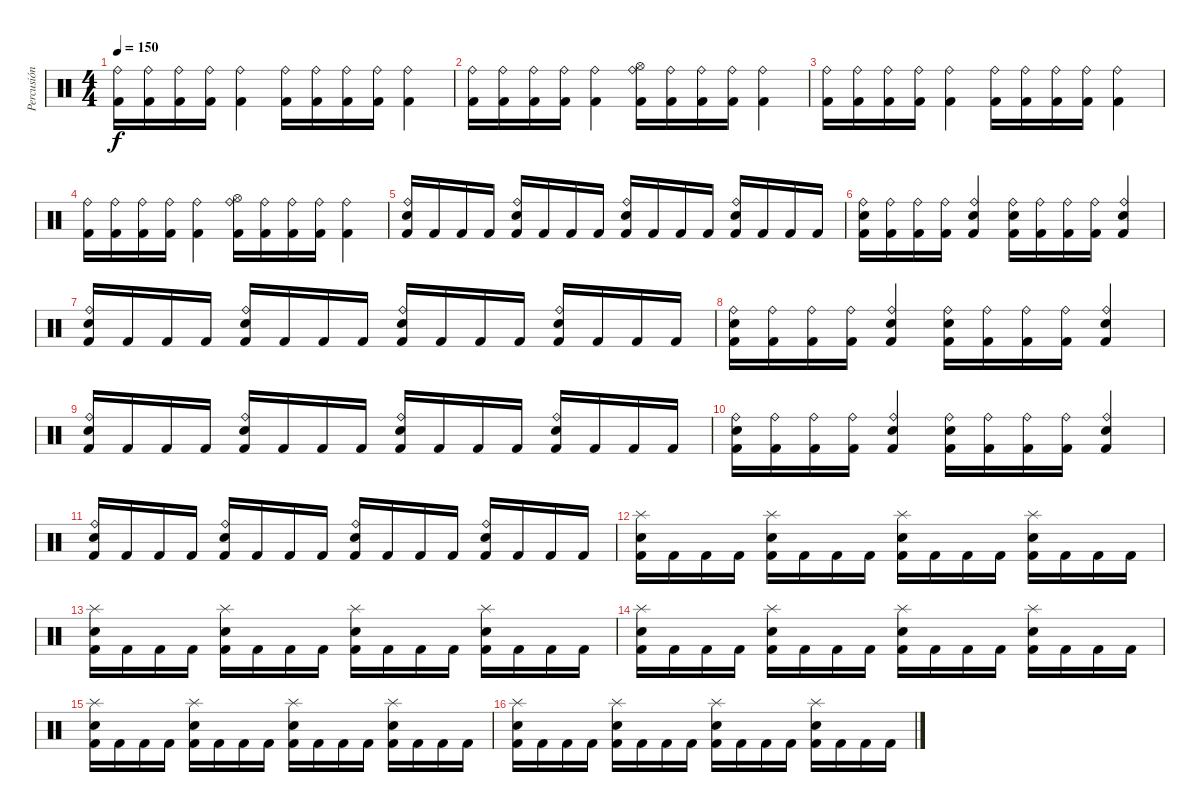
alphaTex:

\track ("Percusión" "Percusión") {instrument percussion}
\staff {score}
\articulation defaults
\ts (4 4)
\tempo 150
\clef neutral
\ks c
("Kick (hit) 2" "Ride (bell)").16{dy f} ("Kick (hit) 2" "Ride (bell)").16 ("Kick (hit) 2" "Ride (bell)").16 ("Kick (hit) 2" "Ride (bell)").16 ("Kick (hit) 2" "Ride (bell)").4 ("Kick (hit) 2" "Ride (bell)").16 ("Kick (hit) 2" "Ride (bell)").16 ("Kick (hit) 2" "Ride (bell)").16 ("Kick (hit) 2" "Ride (bell)").16 ("Kick (hit) 2" "Ride (bell)").4 |
("Kick (hit) 2" "Ride (bell)").16 ("Kick (hit) 2" "Ride (bell)").16 ("Kick (hit) 2" "Ride (bell)").16 ("Kick (hit) 2" "Ride (bell)").16 ("Kick (hit) 2" "Ride (bell)").4 ("Kick (hit) 2" "Ride (bell)" "Hi-Hat (open)").16 ("Kick (hit) 2" "Ride (bell)").16 ("Kick (hit) 2" "Ride (bell)").16 ("Kick (hit) 2" "Ride (bell)").16 ("Kick (hit) 2" "Ride (bell)").4 |
("Kick (hit) 2" "Ride (bell)").16 ("Kick (hit) 2" "Ride (bell)").16 ("Kick (hit) 2" "Ride (bell)").16 ("Kick (hit) 2" "Ride (bell)").16 ("Kick (hit) 2" "Ride (bell)").4 ("Kick (hit) 2" "Ride (bell)").16 ("Kick (hit) 2" "Ride (bell)").16 ("Kick (hit) 2" "Ride (bell)").16 ("Kick (hit) 2" "Ride (bell)").16 ("Kick (hit) 2" "Ride (bell)").4 |
("Kick (hit) 2" "Ride (bell)").16 ("Kick (hit) 2" "Ride (bell)").16 ("Kick (hit) 2" "Ride (bell)").16 ("Kick (hit) 2" "Ride (bell)").16 ("Kick (hit) 2" "Ride (bell)").4 ("Kick (hit) 2" "Ride (bell)" "Hi-Hat (open)").16 ("Kick (hit) 2" "Ride (bell)").16 ("Kick (hit) 2" "Ride (bell)").16 ("Kick (hit) 2" "Ride (bell)").16 ("Kick (hit) 2" "Ride (bell)").4 |
("Kick (hit) 2" "Ride (bell)" "Snare (hit) 2").16 "Kick (hit) 2".16 "Kick (hit) 2".16 "Kick (hit) 2".16 ("Kick (hit) 2" "Ride (bell)" "Snare (hit) 2").16 "Kick (hit) 2".16 "Kick (hit) 2".16 "Kick (hit) 2".16 ("Kick (hit) 2" "Ride (bell)" "Snare (hit) 2").16 "Kick (hit) 2".16 "Kick (hit) 2".16 "Kick (hit) 2".16 ("Kick (hit) 2" "Ride (bell)" "Snare (hit) 2").16 "Kick (hit) 2".16 "Kick (hit) 2".16 "Kick (hit) 2".16 |
("Kick (hit) 2" "Ride (bell)" "Snare (hit) 2").16 ("Kick (hit) 2" "Ride (bell)").16 ("Kick (hit) 2" "Ride (bell)").16 ("Kick (hit) 2" "Ride (bell)").16 ("Kick (hit) 2" "Ride (bell)" "Snare (hit) 2").4 ("Kick (hit) 2" "Ride (bell)" "Snare (hit) 2").16 ("Kick (hit) 2" "Ride (bell)").16 ("Kick (hit) 2" "Ride (bell)").16 ("Kick (hit) 2" "Ride (bell)").16 ("Kick (hit) 2" "Ride (bell)" "Snare (hit) 2").4 |
("Kick (hit) 2" "Ride (bell)" "Snare (hit) 2").16 "Kick (hit) 2".16 "Kick (hit) 2".16 "Kick (hit) 2".16 ("Kick (hit) 2" "Ride (bell)" "Snare (hit) 2").16 "Kick (hit) 2".16 "Kick (hit) 2".16 "Kick (hit) 2".16 ("Kick (hit) 2" "Ride (bell)" "Snare (hit) 2").16 "Kick (hit) 2".16 "Kick (hit) 2".16 "Kick (hit) 2".16 ("Kick (hit) 2" "Ride (bell)" "Snare (hit) 2").16 "Kick (hit) 2".16 "Kick (hit) 2".16 "Kick (hit) 2".16 |
("Kick (hit) 2" "Ride (bell)" "Snare (hit) 2").16 ("Kick (hit) 2" "Ride (bell)").16 ("Kick (hit) 2" "Ride (bell)").16 ("Kick (hit) 2" "Ride (bell)").16 ("Kick (hit) 2" "Ride (bell)" "Snare (hit) 2").4 ("Kick (hit) 2" "Ride (bell)" "Snare (hit) 2").16 ("Kick (hit) 2" "Ride (bell)").16 ("Kick (hit) 2" "Ride (bell)").16 ("Kick (hit) 2" "Ride (bell)").16 ("Kick (hit) 2" "Ride (bell)" "Snare (hit) 2").4 |
("Kick (hit) 2" "Ride (bell)" "Snare (hit) 2").16 "Kick (hit) 2".16 "Kick (hit) 2".16 "Kick (hit) 2".16 ("Kick (hit) 2" "Ride (bell)" "Snare (hit) 2").16 "Kick (hit) 2".16 "Kick (hit) 2".16 "Kick (hit) 2".16 ("Kick (hit) 2" "Ride (bell)" "Snare (hit) 2").16 "Kick (hit) 2".16 "Kick (hit) 2".16 "Kick (hit) 2".16 ("Kick (hit) 2" "Ride (bell)" "Snare (hit) 2").16 "Kick (hit) 2".16 "Kick (hit) 2".16 "Kick (hit) 2".16 |
("Kick (hit) 2" "Ride (bell)" "Snare (hit) 2").16 ("Kick (hit) 2" "Ride (bell)").16 ("Kick (hit) 2" "Ride (bell)").16 ("Kick (hit) 2" "Ride (bell)").16 ("Kick (hit) 2" "Ride (bell)" "Snare (hit) 2").4 ("Kick (hit) 2" "Ride (bell)" "Snare (hit) 2").16 ("Kick (hit) 2" "Ride (bell)").16 ("Kick (hit) 2" "Ride (bell)").16 ("Kick (hit) 2" "Ride (bell)").16 ("Kick (hit) 2" "Ride (bell)" "Snare (hit) 2").4 |
("Kick (hit) 2" "Ride (bell)" "Snare (hit) 2").16 "Kick (hit) 2".16 "Kick (hit) 2".16 "Kick (hit) 2".16 ("Kick (hit) 2" "Ride (bell)" "Snare (hit) 2").16 "Kick (hit) 2".16 "Kick (hit) 2".16 "Kick (hit) 2".16 ("Kick (hit) 2" "Ride (bell)" "Snare (hit) 2").16 "Kick (hit) 2".16 "Kick (hit) 2".16 "Kick (hit) 2".16 ("Kick (hit) 2" "Ride (bell)" "Snare (hit) 2").16 "Kick (hit) 2".16 "Kick (hit) 2".16 "Kick (hit) 2".16 |
("Kick (hit) 2" "Splash (hit)" "Snare (hit) 2").16 "Kick (hit) 2".16 "Kick (hit) 2".16 "Kick (hit) 2".16 ("Kick (hit) 2" "Splash (hit)" "Snare (hit) 2").16 "Kick (hit) 2".16 "Kick (hit) 2".16 "Kick (hit) 2".16 ("Kick (hit) 2" "Splash (hit)" "Snare (hit) 2").16 "Kick (hit) 2".16 "Kick (hit) 2".16 "Kick (hit) 2".16 ("Kick (hit) 2" "Splash (hit)" "Snare (hit) 2").16 "Kick (hit) 2".16 "Kick (hit) 2".16 "Kick (hit) 2".16 |
("Kick (hit) 2" "Splash (hit)" "Snare (hit) 2").16 "Kick (hit) 2".16 "Kick (hit) 2".16 "Kick (hit) 2".16 ("Kick (hit) 2" "Splash (hit)" "Snare (hit) 2").16 "Kick (hit) 2".16 "Kick (hit) 2".16 "Kick (hit) 2".16 ("Kick (hit) 2" "Splash (hit)" "Snare (hit) 2").16 "Kick (hit) 2".16 "Kick (hit) 2".16 "Kick (hit) 2".16 ("Kick (hit) 2" "Splash (hit)" "Snare (hit) 2").16 "Kick (hit) 2".16 "Kick (hit) 2".16 "Kick (hit) 2".16 |
("Kick (hit) 2" "Splash (hit)" "Snare (hit) 2").16 "Kick (hit) 2".16 "Kick (hit) 2".16 "Kick (hit) 2".16 ("Kick (hit) 2" "Splash (hit)" "Snare (hit) 2").16 "Kick (hit) 2".16 "Kick (hit) 2".16 "Kick (hit) 2".16 ("Kick (hit) 2" "Splash (hit)" "Snare (hit) 2").16 "Kick (hit) 2".16 "Kick (hit) 2".16 "Kick (hit) 2".16 ("Kick (hit) 2" "Splash (hit)" "Snare (hit) 2").16 "Kick (hit) 2".16 "Kick (hit) 2".16 "Kick (hit) 2".16 |
("Kick (hit) 2" "Splash (hit)" "Snare (hit) 2").16 "Kick (hit) 2".16 "Kick (hit) 2".16 "Kick (hit) 2".16 ("Kick (hit) 2" "Splash (hit)" "Snare (hit) 2").16 "Kick (hit) 2".16 "Kick (hit) 2".16 "Kick (hit) 2".16 ("Kick (hit) 2" "Splash (hit)" "Snare (hit) 2").16 "Kick (hit) 2".16 "Kick (hit) 2".16 "Kick (hit) 2".16 ("Kick (hit) 2" "Splash (hit)" "Snare (hit) 2").16 "Kick (hit) 2".16 "Kick (hit) 2".16 "Kick (hit) 2".16 |
("Kick (hit) 2" "Splash (hit)" "Snare (hit) 2").16 "Kick (hit) 2".16 "Kick (hit) 2".16 "Kick (hit) 2".16 ("Kick (hit) 2" "Splash (hit)" "Snare (hit) 2").16 "Kick (hit) 2".16 "Kick (hit) 2".16 "Kick (hit) 2".16 ("Kick (hit) 2" "Splash (hit)" "Snare (hit) 2").16 "Kick (hit) 2".16 "Kick (hit) 2".16 "Kick (hit) 2".16 ("Kick (hit) 2" "Splash (hit)" "Snare (hit) 2").16 "Kick (hit) 2".16 "Kick (hit) 2".16 "Kick (hit) 2".16
